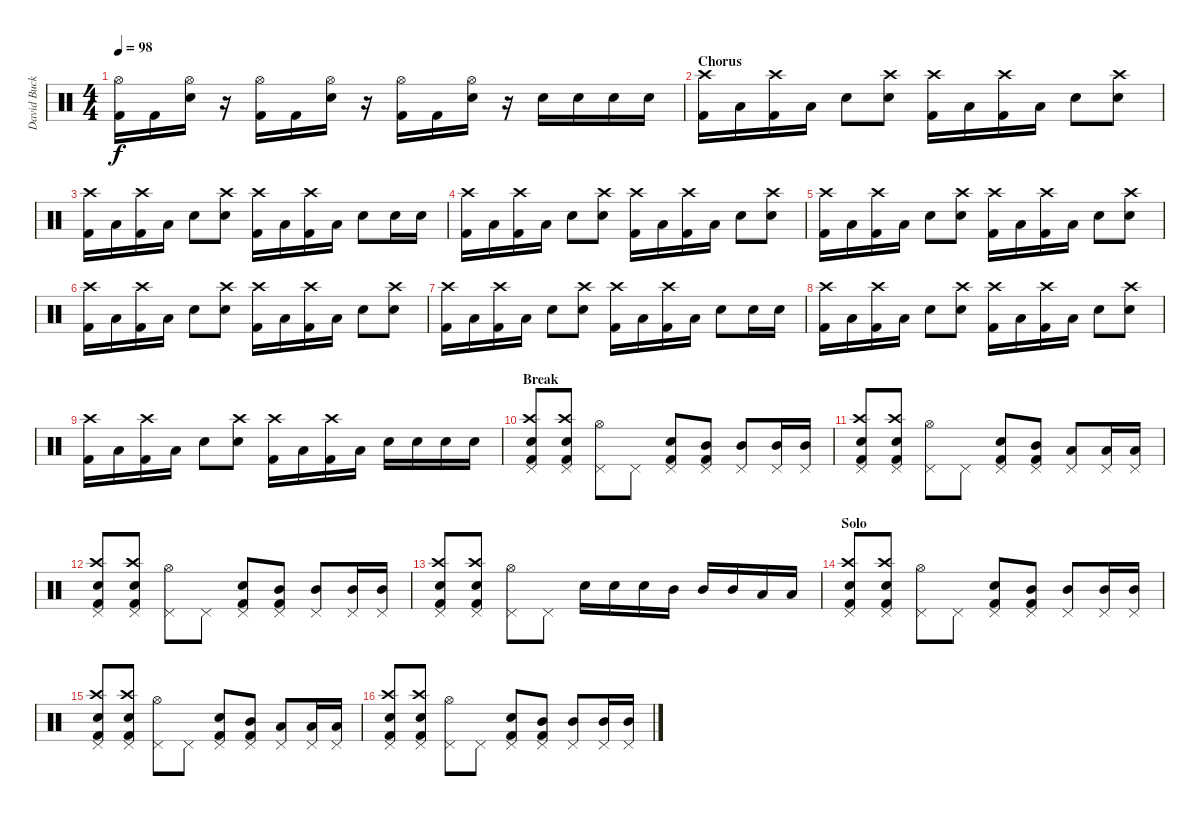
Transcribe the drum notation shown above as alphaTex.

\track ("David Buckner" "David Buck") {instrument percussion}
\staff {score}
\articulation defaults
\ts (4 4)
\tempo 98
\clef neutral
\ks c
("Hi-Hat (open)" "Kick (hit) 2").16{dy f} "Kick (hit) 2".16 ("Hi-Hat (open)" "Snare (hit) 2").16 r.16 ("Hi-Hat (open)" "Kick (hit) 2").16 "Kick (hit) 2".16 ("Hi-Hat (open)" "Snare (hit) 2").16 r.16 ("Hi-Hat (open)" "Kick (hit) 2").16 "Kick (hit) 2".16 ("Hi-Hat (open)" "Snare (hit) 2").16 r.16 "Snare (hit) 2".16 "Snare (hit) 2".16 "Snare (hit) 2".16 "Snare (hit) 2".16 |
\section ("" "Chorus")
("Crash high (hit)" "Kick (hit) 2").16 "Low Tom (hit)".16 ("Crash high (hit)" "Kick (hit) 2").16 "Low Tom (hit)".16 "Snare (hit) 2".8 ("Crash high (hit)" "Snare (hit) 2").8 ("Crash high (hit)" "Kick (hit) 2").16 "Low Tom (hit)".16 ("Crash high (hit)" "Kick (hit) 2").16 "Low Tom (hit)".16 "Snare (hit) 2".8 ("Crash high (hit)" "Snare (hit) 2").8 |
("Crash high (hit)" "Kick (hit) 2").16 "Low Tom (hit)".16 ("Crash high (hit)" "Kick (hit) 2").16 "Low Tom (hit)".16 "Snare (hit) 2".8 ("Crash high (hit)" "Snare (hit) 2").8 ("Crash high (hit)" "Kick (hit) 2").16 "Low Tom (hit)".16 ("Crash high (hit)" "Kick (hit) 2").16 "Low Tom (hit)".16 "Snare (hit) 2".8 "Snare (hit) 2".16 "Snare (hit) 2".16 |
("Crash high (hit)" "Kick (hit) 2").16 "Low Tom (hit)".16 ("Crash high (hit)" "Kick (hit) 2").16 "Low Tom (hit)".16 "Snare (hit) 2".8 ("Crash high (hit)" "Snare (hit) 2").8 ("Crash high (hit)" "Kick (hit) 2").16 "Low Tom (hit)".16 ("Crash high (hit)" "Kick (hit) 2").16 "Low Tom (hit)".16 "Snare (hit) 2".8 ("Crash high (hit)" "Snare (hit) 2").8 |
("Crash high (hit)" "Kick (hit) 2").16 "Low Tom (hit)".16 ("Crash high (hit)" "Kick (hit) 2").16 "Low Tom (hit)".16 "Snare (hit) 2".8 ("Crash high (hit)" "Snare (hit) 2").8 ("Crash high (hit)" "Kick (hit) 2").16 "Low Tom (hit)".16 ("Crash high (hit)" "Kick (hit) 2").16 "Low Tom (hit)".16 "Snare (hit) 2".8 ("Crash high (hit)" "Snare (hit) 2").8 |
("Crash high (hit)" "Kick (hit) 2").16 "Low Tom (hit)".16 ("Crash high (hit)" "Kick (hit) 2").16 "Low Tom (hit)".16 "Snare (hit) 2".8 ("Crash high (hit)" "Snare (hit) 2").8 ("Crash high (hit)" "Kick (hit) 2").16 "Low Tom (hit)".16 ("Crash high (hit)" "Kick (hit) 2").16 "Low Tom (hit)".16 "Snare (hit) 2".8 ("Crash high (hit)" "Snare (hit) 2").8 |
("Crash high (hit)" "Kick (hit) 2").16 "Low Tom (hit)".16 ("Crash high (hit)" "Kick (hit) 2").16 "Low Tom (hit)".16 "Snare (hit) 2".8 ("Crash high (hit)" "Snare (hit) 2").8 ("Crash high (hit)" "Kick (hit) 2").16 "Low Tom (hit)".16 ("Crash high (hit)" "Kick (hit) 2").16 "Low Tom (hit)".16 "Snare (hit) 2".8 "Snare (hit) 2".16 "Snare (hit) 2".16 |
("Crash high (hit)" "Kick (hit) 2").16 "Low Tom (hit)".16 ("Crash high (hit)" "Kick (hit) 2").16 "Low Tom (hit)".16 "Snare (hit) 2".8 ("Crash high (hit)" "Snare (hit) 2").8 ("Crash high (hit)" "Kick (hit) 2").16 "Low Tom (hit)".16 ("Crash high (hit)" "Kick (hit) 2").16 "Low Tom (hit)".16 "Snare (hit) 2".8 ("Crash high (hit)" "Snare (hit) 2").8 |
("Crash high (hit)" "Kick (hit) 2").16 "Low Tom (hit)".16 ("Crash high (hit)" "Kick (hit) 2").16 "Low Tom (hit)".16 "Snare (hit) 2".8 ("Crash high (hit)" "Snare (hit) 2").8 ("Crash high (hit)" "Kick (hit) 2").16 "Low Tom (hit)".16 ("Crash high (hit)" "Kick (hit) 2").16 "Low Tom (hit)".16 "Snare (hit) 2".16 "Snare (hit) 2".16 "Snare (hit) 2".16 "Snare (hit) 2".16 |
\section ("" "Break")
("Crash high (hit)" "Snare (hit) 2" "Pedal Hi-Hat (hit)" "Kick (hit) 2").8 ("Crash high (hit)" "Snare (hit) 2" "Pedal Hi-Hat (hit)" "Kick (hit) 2").8 ("Hi-Hat (open)" "Pedal Hi-Hat (hit)").8 "Pedal Hi-Hat (hit)".8 ("Snare (hit) 2" "Pedal Hi-Hat (hit)" "Kick (hit) 2").8 ("Mid Tom (hit)" "Pedal Hi-Hat (hit)" "Kick (hit) 2").8 ("Mid Tom (hit)" "Pedal Hi-Hat (hit)").8 ("Mid Tom (hit)" "Pedal Hi-Hat (hit)").16 ("Mid Tom (hit)" "Pedal Hi-Hat (hit)").16 |
("Crash high (hit)" "Snare (hit) 2" "Pedal Hi-Hat (hit)" "Kick (hit) 2").8 ("Crash high (hit)" "Snare (hit) 2" "Pedal Hi-Hat (hit)" "Kick (hit) 2").8 ("Hi-Hat (open)" "Pedal Hi-Hat (hit)").8 "Pedal Hi-Hat (hit)".8 ("Snare (hit) 2" "Pedal Hi-Hat (hit)" "Kick (hit) 2").8 ("Mid Tom (hit)" "Pedal Hi-Hat (hit)" "Kick (hit) 2").8 ("Low Tom (hit)" "Pedal Hi-Hat (hit)").8 ("Low Tom (hit)" "Pedal Hi-Hat (hit)").16 ("Low Tom (hit)" "Pedal Hi-Hat (hit)").16 |
("Crash high (hit)" "Snare (hit) 2" "Pedal Hi-Hat (hit)" "Kick (hit) 2").8 ("Crash high (hit)" "Snare (hit) 2" "Pedal Hi-Hat (hit)" "Kick (hit) 2").8 ("Hi-Hat (open)" "Pedal Hi-Hat (hit)").8 "Pedal Hi-Hat (hit)".8 ("Snare (hit) 2" "Pedal Hi-Hat (hit)" "Kick (hit) 2").8 ("Mid Tom (hit)" "Pedal Hi-Hat (hit)" "Kick (hit) 2").8 ("Mid Tom (hit)" "Pedal Hi-Hat (hit)").8 ("Mid Tom (hit)" "Pedal Hi-Hat (hit)").16 ("Mid Tom (hit)" "Pedal Hi-Hat (hit)").16 |
("Crash high (hit)" "Snare (hit) 2" "Pedal Hi-Hat (hit)" "Kick (hit) 2").8 ("Crash high (hit)" "Snare (hit) 2" "Pedal Hi-Hat (hit)" "Kick (hit) 2").8 ("Hi-Hat (open)" "Pedal Hi-Hat (hit)").8 "Pedal Hi-Hat (hit)".8 "Snare (hit) 2".16 "Snare (hit) 2".16 "Snare (hit) 2".16 "Mid Tom (hit)".16 "Mid Tom (hit)".16 "Mid Tom (hit)".16 "Low Tom (hit)".16 "Low Tom (hit)".16 |
\section ("" "Solo")
("Crash high (hit)" "Snare (hit) 2" "Pedal Hi-Hat (hit)" "Kick (hit) 2").8 ("Crash high (hit)" "Snare (hit) 2" "Pedal Hi-Hat (hit)" "Kick (hit) 2").8 ("Hi-Hat (open)" "Pedal Hi-Hat (hit)").8 "Pedal Hi-Hat (hit)".8 ("Snare (hit) 2" "Pedal Hi-Hat (hit)" "Kick (hit) 2").8 ("Mid Tom (hit)" "Pedal Hi-Hat (hit)" "Kick (hit) 2").8 ("Mid Tom (hit)" "Pedal Hi-Hat (hit)").8 ("Mid Tom (hit)" "Pedal Hi-Hat (hit)").16 ("Mid Tom (hit)" "Pedal Hi-Hat (hit)").16 |
("Crash high (hit)" "Snare (hit) 2" "Pedal Hi-Hat (hit)" "Kick (hit) 2").8 ("Crash high (hit)" "Snare (hit) 2" "Pedal Hi-Hat (hit)" "Kick (hit) 2").8 ("Hi-Hat (open)" "Pedal Hi-Hat (hit)").8 "Pedal Hi-Hat (hit)".8 ("Snare (hit) 2" "Pedal Hi-Hat (hit)" "Kick (hit) 2").8 ("Mid Tom (hit)" "Pedal Hi-Hat (hit)" "Kick (hit) 2").8 ("Low Tom (hit)" "Pedal Hi-Hat (hit)").8 ("Low Tom (hit)" "Pedal Hi-Hat (hit)").16 ("Low Tom (hit)" "Pedal Hi-Hat (hit)").16 |
("Crash high (hit)" "Snare (hit) 2" "Pedal Hi-Hat (hit)" "Kick (hit) 2").8 ("Crash high (hit)" "Snare (hit) 2" "Pedal Hi-Hat (hit)" "Kick (hit) 2").8 ("Hi-Hat (open)" "Pedal Hi-Hat (hit)").8 "Pedal Hi-Hat (hit)".8 ("Snare (hit) 2" "Pedal Hi-Hat (hit)" "Kick (hit) 2").8 ("Mid Tom (hit)" "Pedal Hi-Hat (hit)" "Kick (hit) 2").8 ("Mid Tom (hit)" "Pedal Hi-Hat (hit)").8 ("Mid Tom (hit)" "Pedal Hi-Hat (hit)").16 ("Mid Tom (hit)" "Pedal Hi-Hat (hit)").16
